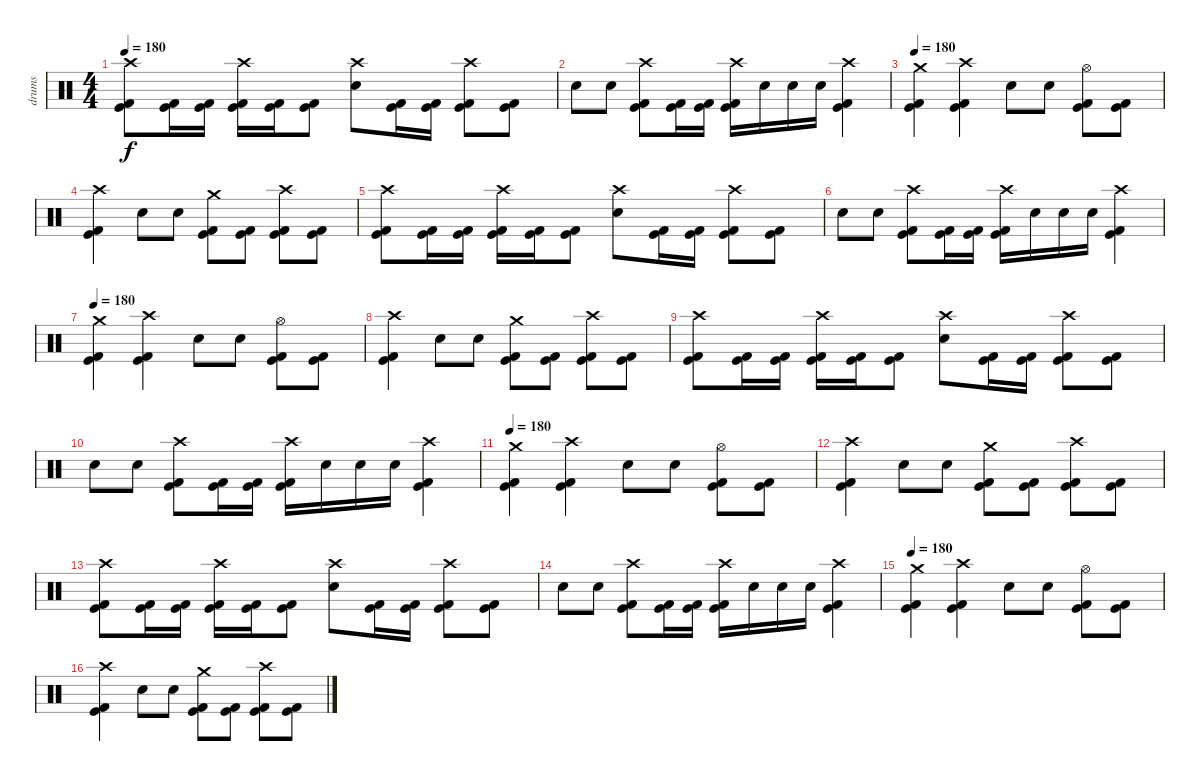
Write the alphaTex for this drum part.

\track ("drums" "drums") {instrument percussion}
\staff {score}
\articulation defaults
\ts (4 4)
\tempo 180
\clef neutral
\ks c
("Crash high (hit)" "Kick (hit) 2" "Kick (hit)").8{dy f} ("Kick (hit) 2" "Kick (hit)").16 ("Kick (hit) 2" "Kick (hit)").16 ("Crash high (hit)" "Kick (hit) 2" "Kick (hit)").16 ("Kick (hit) 2" "Kick (hit)").16 ("Kick (hit) 2" "Kick (hit)").8 ("Crash high (hit)" "Electric Snare (hit)").8 ("Kick (hit) 2" "Kick (hit)").16 ("Kick (hit) 2" "Kick (hit)").16 ("Crash high (hit)" "Kick (hit) 2" "Kick (hit)").8 ("Kick (hit) 2" "Kick (hit)").8 |
"Electric Snare (hit)".8 "Electric Snare (hit)".8 ("Crash high (hit)" "Kick (hit) 2" "Kick (hit)").8 ("Kick (hit) 2" "Kick (hit)").16 ("Kick (hit) 2" "Kick (hit)").16 ("Crash high (hit)" "Kick (hit) 2" "Kick (hit)").16 "Electric Snare (hit)".16 "Electric Snare (hit)".16 "Electric Snare (hit)".16 ("Crash high (hit)" "Kick (hit) 2" "Kick (hit)").4 |
\tempo 180
("Crash medium (hit)" "Kick (hit) 2" "Kick (hit)").4 ("Crash high (hit)" "Kick (hit) 2" "Kick (hit)").4 "Electric Snare (hit)".8 "Electric Snare (hit)".8 ("Hi-Hat (open)" "Kick (hit) 2" "Kick (hit)").8 ("Kick (hit) 2" "Kick (hit)").8 |
("Crash high (hit)" "Kick (hit) 2" "Kick (hit)").4 "Electric Snare (hit)".8 "Electric Snare (hit)".8 ("Crash medium (hit)" "Kick (hit) 2" "Kick (hit)").8 ("Kick (hit) 2" "Kick (hit)").8 ("Crash high (hit)" "Kick (hit) 2" "Kick (hit)").8 ("Kick (hit) 2" "Kick (hit)").8 |
("Crash high (hit)" "Kick (hit) 2" "Kick (hit)").8 ("Kick (hit) 2" "Kick (hit)").16 ("Kick (hit) 2" "Kick (hit)").16 ("Crash high (hit)" "Kick (hit) 2" "Kick (hit)").16 ("Kick (hit) 2" "Kick (hit)").16 ("Kick (hit) 2" "Kick (hit)").8 ("Crash high (hit)" "Electric Snare (hit)").8 ("Kick (hit) 2" "Kick (hit)").16 ("Kick (hit) 2" "Kick (hit)").16 ("Crash high (hit)" "Kick (hit) 2" "Kick (hit)").8 ("Kick (hit) 2" "Kick (hit)").8 |
"Electric Snare (hit)".8 "Electric Snare (hit)".8 ("Crash high (hit)" "Kick (hit) 2" "Kick (hit)").8 ("Kick (hit) 2" "Kick (hit)").16 ("Kick (hit) 2" "Kick (hit)").16 ("Crash high (hit)" "Kick (hit) 2" "Kick (hit)").16 "Electric Snare (hit)".16 "Electric Snare (hit)".16 "Electric Snare (hit)".16 ("Crash high (hit)" "Kick (hit) 2" "Kick (hit)").4 |
\tempo 180
("Crash medium (hit)" "Kick (hit) 2" "Kick (hit)").4 ("Crash high (hit)" "Kick (hit) 2" "Kick (hit)").4 "Electric Snare (hit)".8 "Electric Snare (hit)".8 ("Hi-Hat (open)" "Kick (hit) 2" "Kick (hit)").8 ("Kick (hit) 2" "Kick (hit)").8 |
("Crash high (hit)" "Kick (hit) 2" "Kick (hit)").4 "Electric Snare (hit)".8 "Electric Snare (hit)".8 ("Crash medium (hit)" "Kick (hit) 2" "Kick (hit)").8 ("Kick (hit) 2" "Kick (hit)").8 ("Crash high (hit)" "Kick (hit) 2" "Kick (hit)").8 ("Kick (hit) 2" "Kick (hit)").8 |
("Crash high (hit)" "Kick (hit) 2" "Kick (hit)").8 ("Kick (hit) 2" "Kick (hit)").16 ("Kick (hit) 2" "Kick (hit)").16 ("Crash high (hit)" "Kick (hit) 2" "Kick (hit)").16 ("Kick (hit) 2" "Kick (hit)").16 ("Kick (hit) 2" "Kick (hit)").8 ("Crash high (hit)" "Electric Snare (hit)").8 ("Kick (hit) 2" "Kick (hit)").16 ("Kick (hit) 2" "Kick (hit)").16 ("Crash high (hit)" "Kick (hit) 2" "Kick (hit)").8 ("Kick (hit) 2" "Kick (hit)").8 |
"Electric Snare (hit)".8 "Electric Snare (hit)".8 ("Crash high (hit)" "Kick (hit) 2" "Kick (hit)").8 ("Kick (hit) 2" "Kick (hit)").16 ("Kick (hit) 2" "Kick (hit)").16 ("Crash high (hit)" "Kick (hit) 2" "Kick (hit)").16 "Electric Snare (hit)".16 "Electric Snare (hit)".16 "Electric Snare (hit)".16 ("Crash high (hit)" "Kick (hit) 2" "Kick (hit)").4 |
\tempo 180
("Crash medium (hit)" "Kick (hit) 2" "Kick (hit)").4 ("Crash high (hit)" "Kick (hit) 2" "Kick (hit)").4 "Electric Snare (hit)".8 "Electric Snare (hit)".8 ("Hi-Hat (open)" "Kick (hit) 2" "Kick (hit)").8 ("Kick (hit) 2" "Kick (hit)").8 |
("Crash high (hit)" "Kick (hit) 2" "Kick (hit)").4 "Electric Snare (hit)".8 "Electric Snare (hit)".8 ("Crash medium (hit)" "Kick (hit) 2" "Kick (hit)").8 ("Kick (hit) 2" "Kick (hit)").8 ("Crash high (hit)" "Kick (hit) 2" "Kick (hit)").8 ("Kick (hit) 2" "Kick (hit)").8 |
("Crash high (hit)" "Kick (hit) 2" "Kick (hit)").8 ("Kick (hit) 2" "Kick (hit)").16 ("Kick (hit) 2" "Kick (hit)").16 ("Crash high (hit)" "Kick (hit) 2" "Kick (hit)").16 ("Kick (hit) 2" "Kick (hit)").16 ("Kick (hit) 2" "Kick (hit)").8 ("Crash high (hit)" "Electric Snare (hit)").8 ("Kick (hit) 2" "Kick (hit)").16 ("Kick (hit) 2" "Kick (hit)").16 ("Crash high (hit)" "Kick (hit) 2" "Kick (hit)").8 ("Kick (hit) 2" "Kick (hit)").8 |
"Electric Snare (hit)".8 "Electric Snare (hit)".8 ("Crash high (hit)" "Kick (hit) 2" "Kick (hit)").8 ("Kick (hit) 2" "Kick (hit)").16 ("Kick (hit) 2" "Kick (hit)").16 ("Crash high (hit)" "Kick (hit) 2" "Kick (hit)").16 "Electric Snare (hit)".16 "Electric Snare (hit)".16 "Electric Snare (hit)".16 ("Crash high (hit)" "Kick (hit) 2" "Kick (hit)").4 |
\tempo 180
("Crash medium (hit)" "Kick (hit) 2" "Kick (hit)").4 ("Crash high (hit)" "Kick (hit) 2" "Kick (hit)").4 "Electric Snare (hit)".8 "Electric Snare (hit)".8 ("Hi-Hat (open)" "Kick (hit) 2" "Kick (hit)").8 ("Kick (hit) 2" "Kick (hit)").8 |
("Crash high (hit)" "Kick (hit) 2" "Kick (hit)").4 "Electric Snare (hit)".8 "Electric Snare (hit)".8 ("Crash medium (hit)" "Kick (hit) 2" "Kick (hit)").8 ("Kick (hit) 2" "Kick (hit)").8 ("Crash high (hit)" "Kick (hit) 2" "Kick (hit)").8 ("Kick (hit) 2" "Kick (hit)").8
